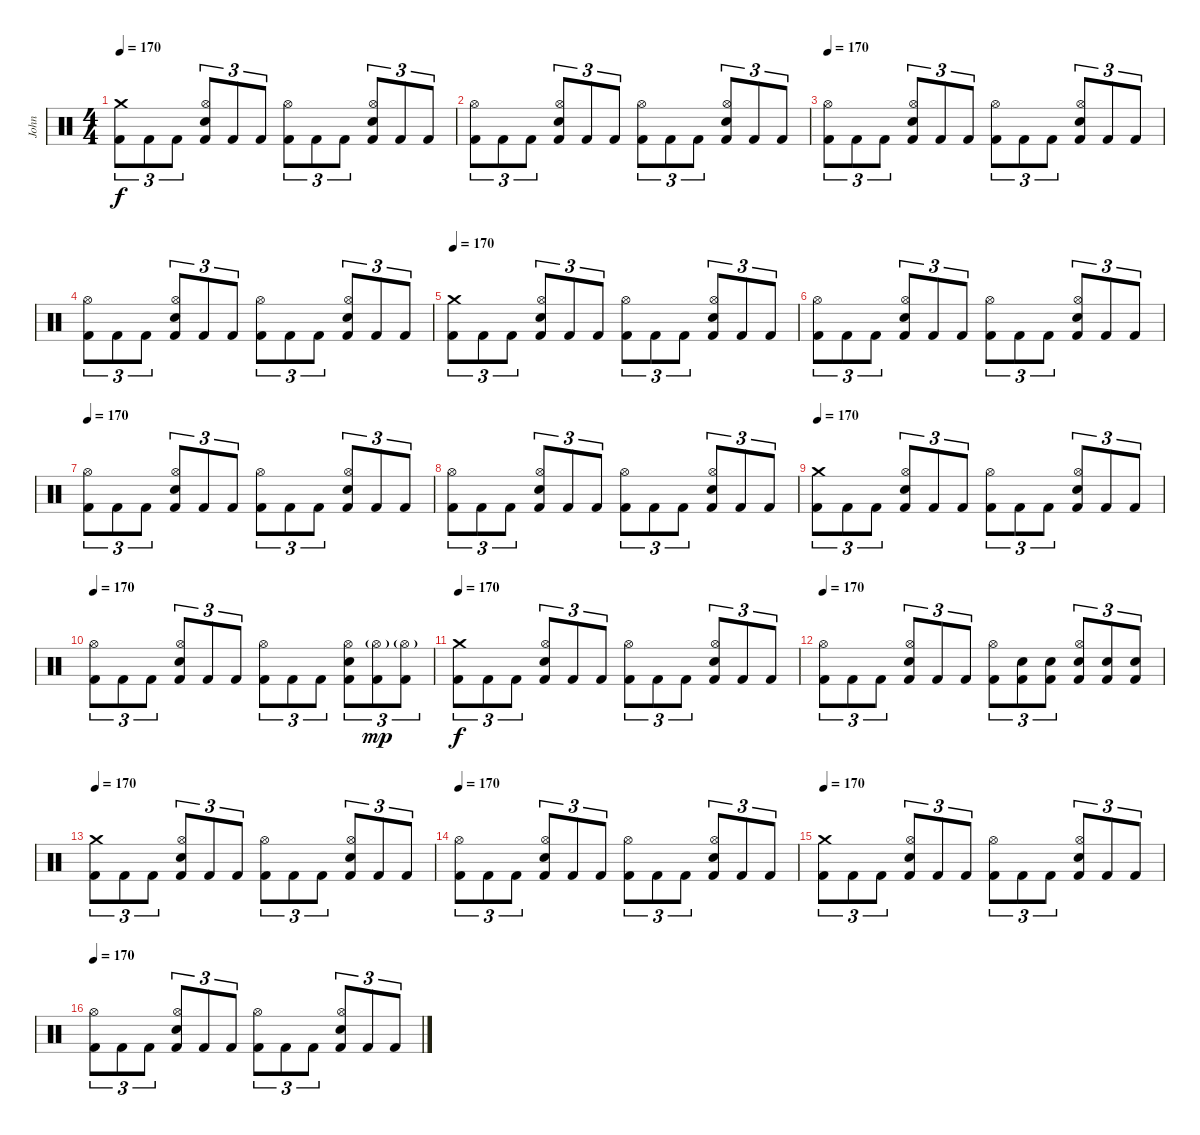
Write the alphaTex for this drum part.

\track ("John " "John ") {instrument percussion}
\staff {score}
\articulation defaults
\ts (4 4)
\tempo 170
\clef neutral
\ks c
("Crash medium (hit)" "Kick (hit) 2").8{tu (3 2) dy f} "Kick (hit) 2".8{tu (3 2)} "Kick (hit) 2".8{tu (3 2)} ("Hi-Hat (open)" "Kick (hit) 2" "Snare (hit) 2").8{tu (3 2)} "Kick (hit) 2".8{tu (3 2)} "Kick (hit) 2".8{tu (3 2)} ("Hi-Hat (open)" "Kick (hit) 2").8{tu (3 2)} "Kick (hit) 2".8{tu (3 2)} "Kick (hit) 2".8{tu (3 2)} ("Hi-Hat (open)" "Kick (hit) 2" "Snare (hit) 2").8{tu (3 2)} "Kick (hit) 2".8{tu (3 2)} "Kick (hit) 2".8{tu (3 2)} |
("Hi-Hat (open)" "Kick (hit) 2").8{tu (3 2)} "Kick (hit) 2".8{tu (3 2)} "Kick (hit) 2".8{tu (3 2)} ("Hi-Hat (open)" "Kick (hit) 2" "Snare (hit) 2").8{tu (3 2)} "Kick (hit) 2".8{tu (3 2)} "Kick (hit) 2".8{tu (3 2)} ("Hi-Hat (open)" "Kick (hit) 2").8{tu (3 2)} "Kick (hit) 2".8{tu (3 2)} "Kick (hit) 2".8{tu (3 2)} ("Hi-Hat (open)" "Kick (hit) 2" "Snare (hit) 2").8{tu (3 2)} "Kick (hit) 2".8{tu (3 2)} "Kick (hit) 2".8{tu (3 2)} |
\tempo 170
("Hi-Hat (open)" "Kick (hit) 2").8{tu (3 2)} "Kick (hit) 2".8{tu (3 2)} "Kick (hit) 2".8{tu (3 2)} ("Hi-Hat (open)" "Kick (hit) 2" "Snare (hit) 2").8{tu (3 2)} "Kick (hit) 2".8{tu (3 2)} "Kick (hit) 2".8{tu (3 2)} ("Hi-Hat (open)" "Kick (hit) 2").8{tu (3 2)} "Kick (hit) 2".8{tu (3 2)} "Kick (hit) 2".8{tu (3 2)} ("Hi-Hat (open)" "Kick (hit) 2" "Snare (hit) 2").8{tu (3 2)} "Kick (hit) 2".8{tu (3 2)} "Kick (hit) 2".8{tu (3 2)} |
("Hi-Hat (open)" "Kick (hit) 2").8{tu (3 2)} "Kick (hit) 2".8{tu (3 2)} "Kick (hit) 2".8{tu (3 2)} ("Hi-Hat (open)" "Kick (hit) 2" "Snare (hit) 2").8{tu (3 2)} "Kick (hit) 2".8{tu (3 2)} "Kick (hit) 2".8{tu (3 2)} ("Hi-Hat (open)" "Kick (hit) 2").8{tu (3 2)} "Kick (hit) 2".8{tu (3 2)} "Kick (hit) 2".8{tu (3 2)} ("Hi-Hat (open)" "Kick (hit) 2" "Snare (hit) 2").8{tu (3 2)} "Kick (hit) 2".8{tu (3 2)} "Kick (hit) 2".8{tu (3 2)} |
\tempo 170
("Crash medium (hit)" "Kick (hit) 2").8{tu (3 2)} "Kick (hit) 2".8{tu (3 2)} "Kick (hit) 2".8{tu (3 2)} ("Hi-Hat (open)" "Kick (hit) 2" "Snare (hit) 2").8{tu (3 2)} "Kick (hit) 2".8{tu (3 2)} "Kick (hit) 2".8{tu (3 2)} ("Hi-Hat (open)" "Kick (hit) 2").8{tu (3 2)} "Kick (hit) 2".8{tu (3 2)} "Kick (hit) 2".8{tu (3 2)} ("Hi-Hat (open)" "Kick (hit) 2" "Snare (hit) 2").8{tu (3 2)} "Kick (hit) 2".8{tu (3 2)} "Kick (hit) 2".8{tu (3 2)} |
("Hi-Hat (open)" "Kick (hit) 2").8{tu (3 2)} "Kick (hit) 2".8{tu (3 2)} "Kick (hit) 2".8{tu (3 2)} ("Hi-Hat (open)" "Kick (hit) 2" "Snare (hit) 2").8{tu (3 2)} "Kick (hit) 2".8{tu (3 2)} "Kick (hit) 2".8{tu (3 2)} ("Hi-Hat (open)" "Kick (hit) 2").8{tu (3 2)} "Kick (hit) 2".8{tu (3 2)} "Kick (hit) 2".8{tu (3 2)} ("Hi-Hat (open)" "Kick (hit) 2" "Snare (hit) 2").8{tu (3 2)} "Kick (hit) 2".8{tu (3 2)} "Kick (hit) 2".8{tu (3 2)} |
\tempo 170
("Hi-Hat (open)" "Kick (hit) 2").8{tu (3 2)} "Kick (hit) 2".8{tu (3 2)} "Kick (hit) 2".8{tu (3 2)} ("Hi-Hat (open)" "Kick (hit) 2" "Snare (hit) 2").8{tu (3 2)} "Kick (hit) 2".8{tu (3 2)} "Kick (hit) 2".8{tu (3 2)} ("Hi-Hat (open)" "Kick (hit) 2").8{tu (3 2)} "Kick (hit) 2".8{tu (3 2)} "Kick (hit) 2".8{tu (3 2)} ("Hi-Hat (open)" "Kick (hit) 2" "Snare (hit) 2").8{tu (3 2)} "Kick (hit) 2".8{tu (3 2)} "Kick (hit) 2".8{tu (3 2)} |
("Hi-Hat (open)" "Kick (hit) 2").8{tu (3 2)} "Kick (hit) 2".8{tu (3 2)} "Kick (hit) 2".8{tu (3 2)} ("Hi-Hat (open)" "Kick (hit) 2" "Snare (hit) 2").8{tu (3 2)} "Kick (hit) 2".8{tu (3 2)} "Kick (hit) 2".8{tu (3 2)} ("Hi-Hat (open)" "Kick (hit) 2").8{tu (3 2)} "Kick (hit) 2".8{tu (3 2)} "Kick (hit) 2".8{tu (3 2)} ("Hi-Hat (open)" "Kick (hit) 2" "Snare (hit) 2").8{tu (3 2)} "Kick (hit) 2".8{tu (3 2)} "Kick (hit) 2".8{tu (3 2)} |
\tempo 170
("Crash medium (hit)" "Kick (hit) 2").8{tu (3 2)} "Kick (hit) 2".8{tu (3 2)} "Kick (hit) 2".8{tu (3 2)} ("Hi-Hat (open)" "Kick (hit) 2" "Snare (hit) 2").8{tu (3 2)} "Kick (hit) 2".8{tu (3 2)} "Kick (hit) 2".8{tu (3 2)} ("Hi-Hat (open)" "Kick (hit) 2").8{tu (3 2)} "Kick (hit) 2".8{tu (3 2)} "Kick (hit) 2".8{tu (3 2)} ("Hi-Hat (open)" "Kick (hit) 2" "Snare (hit) 2").8{tu (3 2)} "Kick (hit) 2".8{tu (3 2)} "Kick (hit) 2".8{tu (3 2)} |
\tempo 170
("Hi-Hat (open)" "Kick (hit) 2").8{tu (3 2)} "Kick (hit) 2".8{tu (3 2)} "Kick (hit) 2".8{tu (3 2)} ("Hi-Hat (open)" "Kick (hit) 2" "Snare (hit) 2").8{tu (3 2)} "Kick (hit) 2".8{tu (3 2)} "Kick (hit) 2".8{tu (3 2)} ("Hi-Hat (open)" "Kick (hit) 2").8{tu (3 2)} "Kick (hit) 2".8{tu (3 2)} "Kick (hit) 2".8{tu (3 2)} ("Hi-Hat (open)" "Kick (hit) 2" "Snare (hit) 2").8{tu (3 2)} ("Hi-Hat (open)"{g} "Kick (hit) 2").8{tu (3 2) dy mp} ("Hi-Hat (open)"{g} "Kick (hit) 2").8{tu (3 2)} |
\tempo 170
("Crash medium (hit)" "Kick (hit) 2").8{tu (3 2) dy f} "Kick (hit) 2".8{tu (3 2)} "Kick (hit) 2".8{tu (3 2)} ("Hi-Hat (open)" "Kick (hit) 2" "Snare (hit) 2").8{tu (3 2)} "Kick (hit) 2".8{tu (3 2)} "Kick (hit) 2".8{tu (3 2)} ("Hi-Hat (open)" "Kick (hit) 2").8{tu (3 2)} "Kick (hit) 2".8{tu (3 2)} "Kick (hit) 2".8{tu (3 2)} ("Hi-Hat (open)" "Kick (hit) 2" "Snare (hit) 2").8{tu (3 2)} "Kick (hit) 2".8{tu (3 2)} "Kick (hit) 2".8{tu (3 2)} |
\tempo 170
("Hi-Hat (open)" "Kick (hit) 2").8{tu (3 2)} "Kick (hit) 2".8{tu (3 2)} "Kick (hit) 2".8{tu (3 2)} ("Hi-Hat (open)" "Kick (hit) 2" "Snare (hit) 2").8{tu (3 2)} "Kick (hit) 2".8{tu (3 2)} "Kick (hit) 2".8{tu (3 2)} ("Hi-Hat (open)" "Kick (hit) 2").8{tu (3 2)} ("Snare (hit) 2" "Kick (hit) 2").8{tu (3 2)} ("Snare (hit) 2" "Kick (hit) 2").8{tu (3 2)} ("Hi-Hat (open)" "Snare (hit) 2" "Kick (hit) 2").8{tu (3 2)} ("Snare (hit) 2" "Kick (hit) 2").8{tu (3 2)} ("Snare (hit) 2" "Kick (hit) 2").8{tu (3 2)} |
\tempo 170
("Crash medium (hit)" "Kick (hit) 2").8{tu (3 2)} "Kick (hit) 2".8{tu (3 2)} "Kick (hit) 2".8{tu (3 2)} ("Hi-Hat (open)" "Kick (hit) 2" "Snare (hit) 2").8{tu (3 2)} "Kick (hit) 2".8{tu (3 2)} "Kick (hit) 2".8{tu (3 2)} ("Hi-Hat (open)" "Kick (hit) 2").8{tu (3 2)} "Kick (hit) 2".8{tu (3 2)} "Kick (hit) 2".8{tu (3 2)} ("Hi-Hat (open)" "Kick (hit) 2" "Snare (hit) 2").8{tu (3 2)} "Kick (hit) 2".8{tu (3 2)} "Kick (hit) 2".8{tu (3 2)} |
\tempo 170
("Hi-Hat (open)" "Kick (hit) 2").8{tu (3 2)} "Kick (hit) 2".8{tu (3 2)} "Kick (hit) 2".8{tu (3 2)} ("Hi-Hat (open)" "Kick (hit) 2" "Snare (hit) 2").8{tu (3 2)} "Kick (hit) 2".8{tu (3 2)} "Kick (hit) 2".8{tu (3 2)} ("Hi-Hat (open)" "Kick (hit) 2").8{tu (3 2)} "Kick (hit) 2".8{tu (3 2)} "Kick (hit) 2".8{tu (3 2)} ("Hi-Hat (open)" "Kick (hit) 2" "Snare (hit) 2").8{tu (3 2)} "Kick (hit) 2".8{tu (3 2)} "Kick (hit) 2".8{tu (3 2)} |
\tempo 170
("Crash medium (hit)" "Kick (hit) 2").8{tu (3 2)} "Kick (hit) 2".8{tu (3 2)} "Kick (hit) 2".8{tu (3 2)} ("Hi-Hat (open)" "Kick (hit) 2" "Snare (hit) 2").8{tu (3 2)} "Kick (hit) 2".8{tu (3 2)} "Kick (hit) 2".8{tu (3 2)} ("Hi-Hat (open)" "Kick (hit) 2").8{tu (3 2)} "Kick (hit) 2".8{tu (3 2)} "Kick (hit) 2".8{tu (3 2)} ("Hi-Hat (open)" "Kick (hit) 2" "Snare (hit) 2").8{tu (3 2)} "Kick (hit) 2".8{tu (3 2)} "Kick (hit) 2".8{tu (3 2)} |
\tempo 170
("Hi-Hat (open)" "Kick (hit) 2").8{tu (3 2)} "Kick (hit) 2".8{tu (3 2)} "Kick (hit) 2".8{tu (3 2)} ("Hi-Hat (open)" "Kick (hit) 2" "Snare (hit) 2").8{tu (3 2)} "Kick (hit) 2".8{tu (3 2)} "Kick (hit) 2".8{tu (3 2)} ("Hi-Hat (open)" "Kick (hit) 2").8{tu (3 2)} "Kick (hit) 2".8{tu (3 2)} "Kick (hit) 2".8{tu (3 2)} ("Hi-Hat (open)" "Kick (hit) 2" "Snare (hit) 2").8{tu (3 2)} "Kick (hit) 2".8{tu (3 2)} "Kick (hit) 2".8{tu (3 2)}
